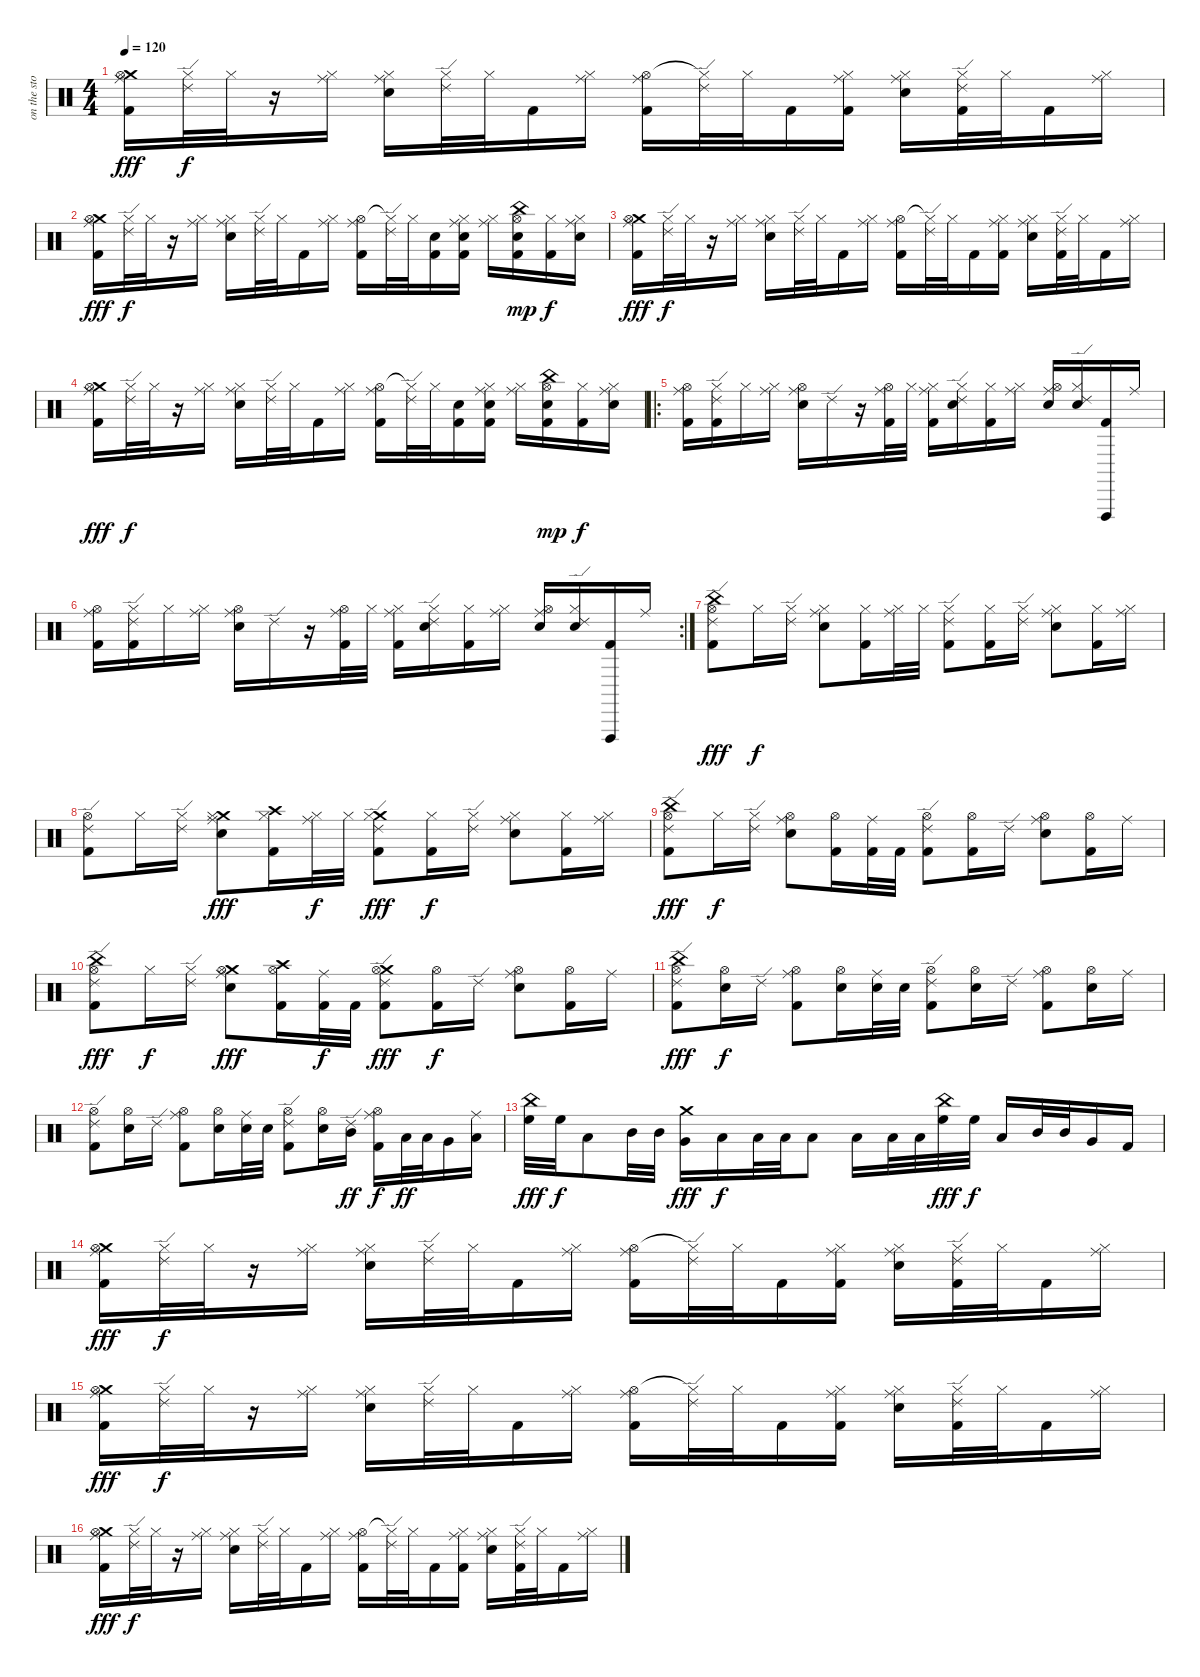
\track ("on the storm" "on the sto") {instrument percussion}
\staff {score}
\articulation defaults
\ts (4 4)
\tempo 120
\clef neutral
\ks c
("Ride (middle)" "Crash medium (hit)" "Hi-Hat (open)" "Kick (hit) 2").16{dy fff} ("Ride (edge) 2" "Hi-Hat (closed)").32{dy f} "Hi-Hat (closed)".32 r.16 ("Ride (middle)" "Hi-Hat (closed)").16 ("Ride (middle)" "Hi-Hat (closed)" "Electric Snare (hit)").16 ("Ride (edge) 2" "Hi-Hat (closed)").32 "Hi-Hat (closed)".32 "Kick (hit) 2".16 ("Ride (middle)" "Hi-Hat (closed)").16 ("Ride (middle)" "Hi-Hat (open)" "Kick (hit) 2").16 ("Ride (edge) 2" "Hi-Hat (closed)"{t}).32 "Hi-Hat (closed)".32 "Kick (hit) 2".16 ("Ride (middle)" "Hi-Hat (closed)" "Kick (hit) 2").16 ("Ride (middle)" "Hi-Hat (closed)" "Electric Snare (hit)").16 ("Ride (edge) 2" "Hi-Hat (closed)" "Kick (hit) 2").32 "Hi-Hat (closed)".32 "Kick (hit) 2".16 ("Ride (middle)" "Hi-Hat (closed)").16 |
("Ride (middle)" "Crash medium (hit)" "Hi-Hat (open)" "Kick (hit) 2").16{dy fff} ("Ride (edge) 2" "Hi-Hat (closed)").32{dy f} "Hi-Hat (closed)".32 r.16 ("Ride (middle)" "Hi-Hat (closed)").16 ("Ride (middle)" "Hi-Hat (closed)" "Electric Snare (hit)").16 ("Ride (edge) 2" "Hi-Hat (closed)").32 "Hi-Hat (closed)".32 "Kick (hit) 2".16 ("Ride (middle)" "Hi-Hat (closed)").16 ("Ride (middle)" "Hi-Hat (open)" "Kick (hit) 2").16 ("Ride (edge) 2" "Hi-Hat (closed)"{t}).32 "Hi-Hat (closed)".32 ("Electric Snare (hit)" "Kick (hit) 2").16 ("Ride (middle)" "Hi-Hat (closed)" "Electric Snare (hit)" "Kick (hit) 2").16 ("Ride (middle)" "Hi-Hat (closed)").16 ("China (hit)" "Hi-Hat (open)" "Electric Snare (hit)" "Kick (hit) 2").16{dy mp} ("Hi-Hat (closed)" "Kick (hit) 2").16{dy f} ("Ride (middle)" "Hi-Hat (closed)" "Electric Snare (hit)").16 |
("Ride (middle)" "Crash medium (hit)" "Hi-Hat (open)" "Kick (hit) 2").16{dy fff} ("Ride (edge) 2" "Hi-Hat (closed)").32{dy f} "Hi-Hat (closed)".32 r.16 ("Ride (middle)" "Hi-Hat (closed)").16 ("Ride (middle)" "Hi-Hat (closed)" "Electric Snare (hit)").16 ("Ride (edge) 2" "Hi-Hat (closed)").32 "Hi-Hat (closed)".32 "Kick (hit) 2".16 ("Ride (middle)" "Hi-Hat (closed)").16 ("Ride (middle)" "Hi-Hat (open)" "Kick (hit) 2").16 ("Ride (edge) 2" "Hi-Hat (closed)"{t}).32 "Hi-Hat (closed)".32 "Kick (hit) 2".16 ("Ride (middle)" "Hi-Hat (closed)" "Kick (hit) 2").16 ("Ride (middle)" "Hi-Hat (closed)" "Electric Snare (hit)").16 ("Ride (edge) 2" "Hi-Hat (closed)" "Kick (hit) 2").32 "Hi-Hat (closed)".32 "Kick (hit) 2".16 ("Ride (middle)" "Hi-Hat (closed)").16 |
("Ride (middle)" "Crash medium (hit)" "Hi-Hat (open)" "Kick (hit) 2").16{dy fff} ("Ride (edge) 2" "Hi-Hat (closed)").32{dy f} "Hi-Hat (closed)".32 r.16 ("Ride (middle)" "Hi-Hat (closed)").16 ("Ride (middle)" "Hi-Hat (closed)" "Electric Snare (hit)").16 ("Ride (edge) 2" "Hi-Hat (closed)").32 "Hi-Hat (closed)".32 "Kick (hit) 2".16 ("Ride (middle)" "Hi-Hat (closed)").16 ("Ride (middle)" "Hi-Hat (open)" "Kick (hit) 2").16 ("Ride (edge) 2" "Hi-Hat (closed)"{t}).32 "Hi-Hat (closed)".32 ("Electric Snare (hit)" "Kick (hit) 2").16 ("Ride (middle)" "Hi-Hat (closed)" "Electric Snare (hit)" "Kick (hit) 2").16 ("Ride (middle)" "Hi-Hat (closed)").16 ("China (hit)" "Hi-Hat (open)" "Electric Snare (hit)" "Kick (hit) 2").16{dy mp} ("Hi-Hat (closed)" "Kick (hit) 2").16{dy f} ("Ride (middle)" "Hi-Hat (closed)" "Electric Snare (hit)").16 |
\ro
("Ride (middle)" "Hi-Hat (open)" "Kick (hit) 2").16 ("Ride (edge) 2" "Hi-Hat (closed)" "Kick (hit) 2").16 "Hi-Hat (closed)".16 ("Ride (middle)" "Hi-Hat (closed)").16 ("Ride (middle)" "Hi-Hat (open)" "Electric Snare (hit)").16 "Ride (edge) 2".16 r.16 ("Ride (middle)" "Hi-Hat (open)" "Kick (hit) 2").32 "Hi-Hat (closed)".32 ("Ride (middle)" "Hi-Hat (closed)" "Kick (hit) 2").16 ("Ride (edge) 2" "Hi-Hat (closed)" "Electric Snare (hit)").16 ("Hi-Hat (closed)" "Kick (hit) 2").16 ("Ride (middle)" "Hi-Hat (closed)").16 ("Ride (middle)" "Hi-Hat (open)" "Electric Snare (hit)").16 ("Ride (edge) 2" "Hi-Hat (closed)" "Electric Snare (hit)").16 ("Vibraslap (hit)" "Kick (hit) 2").16 "Ride (middle)".16 |
\rc 2
("Ride (middle)" "Hi-Hat (open)" "Kick (hit) 2").16 ("Ride (edge) 2" "Hi-Hat (closed)" "Kick (hit) 2").16 "Hi-Hat (closed)".16 ("Ride (middle)" "Hi-Hat (closed)").16 ("Ride (middle)" "Hi-Hat (open)" "Electric Snare (hit)").16 "Ride (edge) 2".16 r.16 ("Ride (middle)" "Hi-Hat (open)" "Kick (hit) 2").32 "Hi-Hat (closed)".32 ("Ride (middle)" "Hi-Hat (closed)" "Kick (hit) 2").16 ("Ride (edge) 2" "Hi-Hat (closed)" "Electric Snare (hit)").16 ("Hi-Hat (closed)" "Kick (hit) 2").16 ("Ride (middle)" "Hi-Hat (closed)").16 ("Ride (middle)" "Hi-Hat (open)" "Electric Snare (hit)").16 ("Ride (edge) 2" "Hi-Hat (closed)" "Electric Snare (hit)").16 ("Vibraslap (hit)" "Kick (hit) 2").16 "Ride (middle)".16 |
("Ride (edge) 2" "China (hit)" "Hi-Hat (open)" "Kick (hit) 2").8{dy fff} "Hi-Hat (closed)".16{dy f} ("Ride (edge) 2" "Hi-Hat (closed)").16 ("Ride (middle)" "Hi-Hat (closed)" "Electric Snare (hit)").8 ("Hi-Hat (closed)" "Kick (hit) 2").16 ("Ride (middle)" "Hi-Hat (closed)").32 "Hi-Hat (closed)".32 ("Ride (edge) 2" "Hi-Hat (closed)" "Kick (hit) 2").8 ("Hi-Hat (closed)" "Kick (hit) 2").16 ("Ride (edge) 2" "Hi-Hat (closed)").16 ("Ride (middle)" "Hi-Hat (closed)" "Electric Snare (hit)").8 ("Hi-Hat (closed)" "Kick (hit) 2").16 ("Ride (middle)" "Hi-Hat (closed)").16 |
("Ride (edge) 2" "Hi-Hat (open)" "Kick (hit) 2").8 "Hi-Hat (closed)".16 ("Ride (edge) 2" "Hi-Hat (closed)").16 ("Ride (middle)" "Crash medium (hit)" "Hi-Hat (closed)" "Electric Snare (hit)").8{dy fff} ("Crash high (hit)" "Hi-Hat (closed)" "Kick (hit) 2").16 ("Ride (middle)" "Hi-Hat (closed)").32{dy f} "Hi-Hat (closed)".32 ("Ride (edge) 2" "Crash medium (hit)" "Hi-Hat (closed)" "Kick (hit) 2").8{dy fff} ("Hi-Hat (closed)" "Kick (hit) 2").16{dy f} ("Ride (edge) 2" "Hi-Hat (closed)").16 ("Ride (middle)" "Hi-Hat (closed)" "Electric Snare (hit)").8 ("Hi-Hat (closed)" "Kick (hit) 2").16 ("Ride (middle)" "Hi-Hat (closed)").16 |
("Ride (edge) 2" "China (hit)" "Hi-Hat (open)" "Kick (hit) 2").8{dy fff} "Hi-Hat (closed)".16{dy f} ("Ride (edge) 2" "Hi-Hat (closed)").16 ("Ride (middle)" "Hi-Hat (open)" "Electric Snare (hit)").8 ("Hi-Hat (open)" "Kick (hit) 2").16 ("Ride (middle)" "Kick (hit) 2").32 "Kick (hit) 2".32 ("Ride (edge) 2" "Hi-Hat (open)" "Kick (hit) 2").8 ("Hi-Hat (open)" "Kick (hit) 2").16 "Ride (edge) 2".16 ("Ride (middle)" "Hi-Hat (open)" "Electric Snare (hit)").8 ("Hi-Hat (open)" "Kick (hit) 2").16 "Ride (middle)".16 |
("Ride (edge) 2" "China (hit)" "Hi-Hat (open)" "Kick (hit) 2").8{dy fff} "Hi-Hat (closed)".16{dy f} ("Ride (edge) 2" "Hi-Hat (closed)").16 ("Ride (middle)" "Crash medium (hit)" "Hi-Hat (open)" "Electric Snare (hit)").8{dy fff} ("Crash high (hit)" "Hi-Hat (open)" "Kick (hit) 2").16 ("Ride (middle)" "Kick (hit) 2").32{dy f} "Kick (hit) 2".32 ("Ride (edge) 2" "Crash medium (hit)" "Hi-Hat (open)" "Kick (hit) 2").8{dy fff} ("Hi-Hat (open)" "Kick (hit) 2").16{dy f} "Ride (edge) 2".16 ("Ride (middle)" "Hi-Hat (open)" "Electric Snare (hit)").8 ("Hi-Hat (open)" "Kick (hit) 2").16 "Ride (middle)".16 |
("Ride (edge) 2" "China (hit)" "Hi-Hat (open)" "Kick (hit) 2").8{dy fff} ("Hi-Hat (open)" "Electric Snare (hit)").16{dy f} "Ride (edge) 2".16 ("Ride (middle)" "Hi-Hat (open)" "Kick (hit) 2").8 ("Hi-Hat (open)" "Electric Snare (hit)").16 ("Ride (middle)" "Electric Snare (hit)").32 "Electric Snare (hit)".32 ("Ride (edge) 2" "Hi-Hat (open)" "Kick (hit) 2").8 ("Hi-Hat (open)" "Electric Snare (hit)").16 "Ride (edge) 2".16 ("Ride (middle)" "Hi-Hat (open)" "Kick (hit) 2").8 ("Hi-Hat (open)" "Electric Snare (hit)").16 "Ride (middle)".16 |
("Ride (edge) 2" "Hi-Hat (open)" "Kick (hit) 2").8 ("Hi-Hat (open)" "Electric Snare (hit)").16 "Ride (edge) 2".16 ("Ride (middle)" "Hi-Hat (open)" "Kick (hit) 2").8 ("Hi-Hat (open)" "Electric Snare (hit)").16 ("Ride (middle)" "Electric Snare (hit)").32 "Electric Snare (hit)".32 ("Ride (edge) 2" "Hi-Hat (open)" "Kick (hit) 2").8 ("Hi-Hat (open)" "Electric Snare (hit)").16 ("Ride (edge) 2" "Mid Tom (hit)").16{dy ff} ("Ride (middle)" "Hi-Hat (open)" "Kick (hit) 2").16{dy f} "Low Tom (hit)".32{dy ff} "Low Tom (hit)".32 "Very Low Tom (hit)".16 ("Ride (middle)" "Low Floor Tom (hit)").16 |
("China (hit)" "High Floor Tom (hit)").32{dy fff} "High Floor Tom (hit)".32{dy f} "Low Tom (hit)".8 "Mid Tom (hit)".32 "Mid Tom (hit)".32 ("Crash medium (hit)" "Very Low Tom (hit)").16{dy fff} "Low Floor Tom (hit)".16{dy f} "Low Floor Tom (hit)".32 "Low Floor Tom (hit)".32 "Low Floor Tom (hit)".8 "Low Floor Tom (hit)".16 "Low Floor Tom (hit)".32 "Low Floor Tom (hit)".32 ("China (hit)" "High Floor Tom (hit)").32{dy fff} "High Floor Tom (hit)".32{dy f} "Low Tom (hit)".16 "Mid Tom (hit)".32 "Mid Tom (hit)".32 "Very Low Tom (hit)".16 "Kick (hit) 2".16 |
("Ride (middle)" "Crash medium (hit)" "Hi-Hat (open)" "Kick (hit) 2").16{dy fff} ("Ride (edge) 2" "Hi-Hat (closed)").32{dy f} "Hi-Hat (closed)".32 r.16 ("Ride (middle)" "Hi-Hat (closed)").16 ("Ride (middle)" "Hi-Hat (closed)" "Electric Snare (hit)").16 ("Ride (edge) 2" "Hi-Hat (closed)").32 "Hi-Hat (closed)".32 "Kick (hit) 2".16 ("Ride (middle)" "Hi-Hat (closed)").16 ("Ride (middle)" "Hi-Hat (open)" "Kick (hit) 2").16 ("Ride (edge) 2" "Hi-Hat (closed)"{t}).32 "Hi-Hat (closed)".32 "Kick (hit) 2".16 ("Ride (middle)" "Hi-Hat (closed)" "Kick (hit) 2").16 ("Ride (middle)" "Hi-Hat (closed)" "Electric Snare (hit)").16 ("Ride (edge) 2" "Hi-Hat (closed)" "Kick (hit) 2").32 "Hi-Hat (closed)".32 "Kick (hit) 2".16 ("Ride (middle)" "Hi-Hat (closed)").16 |
("Ride (middle)" "Crash medium (hit)" "Hi-Hat (open)" "Kick (hit) 2").16{dy fff} ("Ride (edge) 2" "Hi-Hat (closed)").32{dy f} "Hi-Hat (closed)".32 r.16 ("Ride (middle)" "Hi-Hat (closed)").16 ("Ride (middle)" "Hi-Hat (closed)" "Electric Snare (hit)").16 ("Ride (edge) 2" "Hi-Hat (closed)").32 "Hi-Hat (closed)".32 "Kick (hit) 2".16 ("Ride (middle)" "Hi-Hat (closed)").16 ("Ride (middle)" "Hi-Hat (open)" "Kick (hit) 2").16 ("Ride (edge) 2" "Hi-Hat (closed)"{t}).32 "Hi-Hat (closed)".32 "Kick (hit) 2".16 ("Ride (middle)" "Hi-Hat (closed)" "Kick (hit) 2").16 ("Ride (middle)" "Hi-Hat (closed)" "Electric Snare (hit)").16 ("Ride (edge) 2" "Hi-Hat (closed)" "Kick (hit) 2").32 "Hi-Hat (closed)".32 "Kick (hit) 2".16 ("Ride (middle)" "Hi-Hat (closed)").16 |
("Ride (middle)" "Crash medium (hit)" "Hi-Hat (open)" "Kick (hit) 2").16{dy fff} ("Ride (edge) 2" "Hi-Hat (closed)").32{dy f} "Hi-Hat (closed)".32 r.16 ("Ride (middle)" "Hi-Hat (closed)").16 ("Ride (middle)" "Hi-Hat (closed)" "Electric Snare (hit)").16 ("Ride (edge) 2" "Hi-Hat (closed)").32 "Hi-Hat (closed)".32 "Kick (hit) 2".16 ("Ride (middle)" "Hi-Hat (closed)").16 ("Ride (middle)" "Hi-Hat (open)" "Kick (hit) 2").16 ("Ride (edge) 2" "Hi-Hat (closed)"{t}).32 "Hi-Hat (closed)".32 "Kick (hit) 2".16 ("Ride (middle)" "Hi-Hat (closed)" "Kick (hit) 2").16 ("Ride (middle)" "Hi-Hat (closed)" "Electric Snare (hit)").16 ("Ride (edge) 2" "Hi-Hat (closed)" "Kick (hit) 2").32 "Hi-Hat (closed)".32 "Kick (hit) 2".16 ("Ride (middle)" "Hi-Hat (closed)").16
